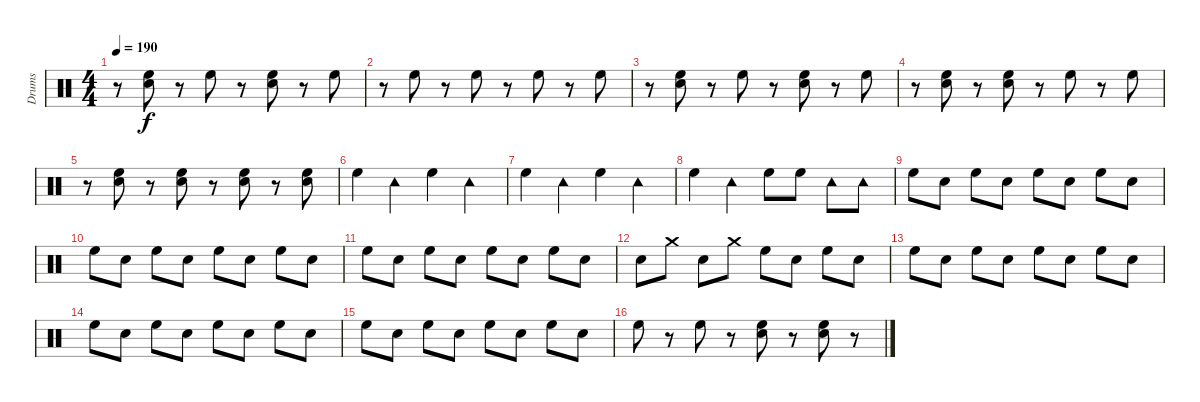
\track ("Drums" "Drums") {instrument percussion}
\staff {score}
\articulation defaults
\ts (4 4)
\tempo 190
\clef neutral
\ks c
r.8{dy f} ("Electric Snare (hit)" "High Floor Tom (hit)").8 r.8 "High Floor Tom (hit)".8 r.8 ("Electric Snare (hit)" "High Floor Tom (hit)").8 r.8 "High Floor Tom (hit)".8 |
r.8 "High Floor Tom (hit)".8 r.8 "High Floor Tom (hit)".8 r.8 "High Floor Tom (hit)".8 r.8 "High Floor Tom (hit)".8 |
r.8 ("Electric Snare (hit)" "High Floor Tom (hit)").8 r.8 "High Floor Tom (hit)".8 r.8 ("Electric Snare (hit)" "High Floor Tom (hit)").8 r.8 "High Floor Tom (hit)".8 |
r.8 ("Electric Snare (hit)" "High Floor Tom (hit)").8 r.8 ("Electric Snare (hit)" "High Floor Tom (hit)").8 r.8 "High Floor Tom (hit)".8 r.8 "High Floor Tom (hit)".8 |
r.8 ("Electric Snare (hit)" "High Floor Tom (hit)").8 r.8 ("Electric Snare (hit)" "High Floor Tom (hit)").8 r.8 ("Electric Snare (hit)" "High Floor Tom (hit)").8 r.8 ("Electric Snare (hit)" "High Floor Tom (hit)").8 |
"High Floor Tom (hit)".4 "Tambourine (hit)".4 "High Floor Tom (hit)".4 "Tambourine (hit)".4 |
"High Floor Tom (hit)".4 "Tambourine (hit)".4 "High Floor Tom (hit)".4 "Tambourine (hit)".4 |
"High Floor Tom (hit)".4 "Tambourine (hit)".4 "High Floor Tom (hit)".8 "High Floor Tom (hit)".8 "Tambourine (hit)".8 "Tambourine (hit)".8 |
"High Floor Tom (hit)".8 "Electric Snare (hit)".8 "High Floor Tom (hit)".8 "Electric Snare (hit)".8 "High Floor Tom (hit)".8 "Electric Snare (hit)".8 "High Floor Tom (hit)".8 "Electric Snare (hit)".8 |
"High Floor Tom (hit)".8 "Electric Snare (hit)".8 "High Floor Tom (hit)".8 "Electric Snare (hit)".8 "High Floor Tom (hit)".8 "Electric Snare (hit)".8 "High Floor Tom (hit)".8 "Electric Snare (hit)".8 |
"High Floor Tom (hit)".8 "Electric Snare (hit)".8 "High Floor Tom (hit)".8 "Electric Snare (hit)".8 "High Floor Tom (hit)".8 "Electric Snare (hit)".8 "High Floor Tom (hit)".8 "Electric Snare (hit)".8 |
"Electric Snare (hit)".8 "Crash medium (hit)".8 "Electric Snare (hit)".8 "Crash medium (hit)".8 "High Floor Tom (hit)".8 "Electric Snare (hit)".8 "High Floor Tom (hit)".8 "Electric Snare (hit)".8 |
"High Floor Tom (hit)".8 "Electric Snare (hit)".8 "High Floor Tom (hit)".8 "Electric Snare (hit)".8 "High Floor Tom (hit)".8 "Electric Snare (hit)".8 "High Floor Tom (hit)".8 "Electric Snare (hit)".8 |
"High Floor Tom (hit)".8 "Electric Snare (hit)".8 "High Floor Tom (hit)".8 "Electric Snare (hit)".8 "High Floor Tom (hit)".8 "Electric Snare (hit)".8 "High Floor Tom (hit)".8 "Electric Snare (hit)".8 |
"High Floor Tom (hit)".8 "Electric Snare (hit)".8 "High Floor Tom (hit)".8 "Electric Snare (hit)".8 "High Floor Tom (hit)".8 "Electric Snare (hit)".8 "High Floor Tom (hit)".8 "Electric Snare (hit)".8 |
"High Floor Tom (hit)".8 r.8 "High Floor Tom (hit)".8 r.8 ("High Floor Tom (hit)" "Electric Snare (hit)").8 r.8 ("Electric Snare (hit)" "High Floor Tom (hit)").8 r.8
